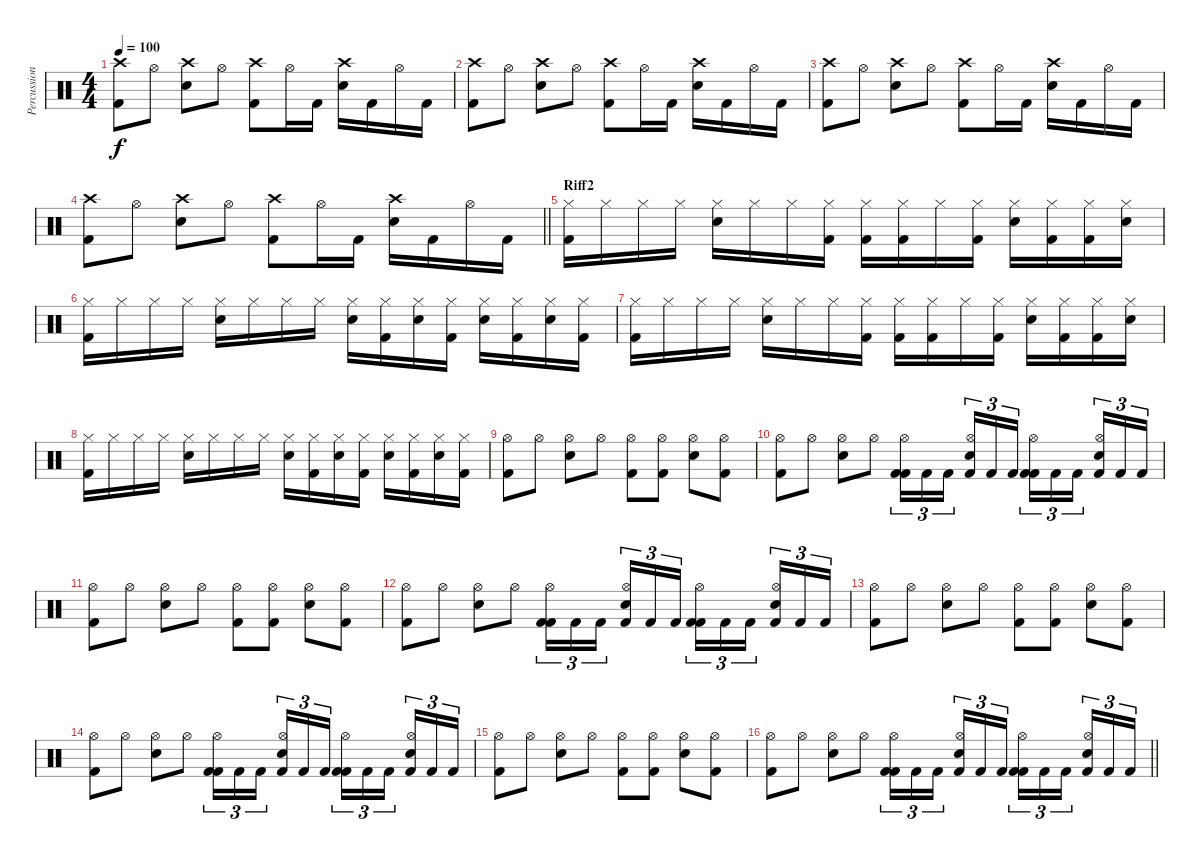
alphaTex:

\track ("Percussion" "Percussion") {instrument percussion}
\staff {score}
\articulation defaults
\ts (4 4)
\tempo 100
\clef neutral
\ks c
("Crash high (hit)" "Kick (hit) 2").8{dy f} "Hi-Hat (open)".8 ("Crash high (hit)" "Electric Snare (hit)").8 "Hi-Hat (open)".8 ("Crash high (hit)" "Kick (hit) 2").8 "Hi-Hat (open)".16 "Kick (hit) 2".16 ("Crash high (hit)" "Electric Snare (hit)").16 "Kick (hit) 2".16 "Hi-Hat (open)".16 "Kick (hit) 2".16 |
("Crash high (hit)" "Kick (hit) 2").8 "Hi-Hat (open)".8 ("Crash high (hit)" "Electric Snare (hit)").8 "Hi-Hat (open)".8 ("Crash high (hit)" "Kick (hit) 2").8 "Hi-Hat (open)".16 "Kick (hit) 2".16 ("Crash high (hit)" "Electric Snare (hit)").16 "Kick (hit) 2".16 "Hi-Hat (open)".16 "Kick (hit) 2".16 |
("Crash high (hit)" "Kick (hit) 2").8 "Hi-Hat (open)".8 ("Crash high (hit)" "Electric Snare (hit)").8 "Hi-Hat (open)".8 ("Crash high (hit)" "Kick (hit) 2").8 "Hi-Hat (open)".16 "Kick (hit) 2".16 ("Crash high (hit)" "Electric Snare (hit)").16 "Kick (hit) 2".16 "Hi-Hat (open)".16 "Kick (hit) 2".16 |
\barLineRight lightlight
("Crash high (hit)" "Kick (hit) 2").8 "Hi-Hat (open)".8 ("Crash high (hit)" "Electric Snare (hit)").8 "Hi-Hat (open)".8 ("Crash high (hit)" "Kick (hit) 2").8 "Hi-Hat (open)".16 "Kick (hit) 2".16 ("Crash high (hit)" "Electric Snare (hit)").16 "Kick (hit) 2".16 "Hi-Hat (open)".16 "Kick (hit) 2".16 |
\section ("" "Riff2")
("Hi-Hat (closed)" "Kick (hit) 2").16 "Hi-Hat (closed)".16 "Hi-Hat (closed)".16 "Hi-Hat (closed)".16 ("Hi-Hat (closed)" "Electric Snare (hit)").16 "Hi-Hat (closed)".16 "Hi-Hat (closed)".16 ("Hi-Hat (closed)" "Kick (hit) 2").16 ("Hi-Hat (closed)" "Kick (hit) 2").16 ("Hi-Hat (closed)" "Kick (hit) 2").16 "Hi-Hat (closed)".16 ("Hi-Hat (closed)" "Kick (hit) 2").16 ("Hi-Hat (closed)" "Electric Snare (hit)").16 ("Hi-Hat (closed)" "Kick (hit) 2").16 ("Hi-Hat (closed)" "Kick (hit) 2").16 ("Hi-Hat (closed)" "Electric Snare (hit)").16 |
("Hi-Hat (closed)" "Kick (hit) 2").16 "Hi-Hat (closed)".16 "Hi-Hat (closed)".16 "Hi-Hat (closed)".16 ("Hi-Hat (closed)" "Electric Snare (hit)").16 "Hi-Hat (closed)".16 "Hi-Hat (closed)".16 "Hi-Hat (closed)".16 ("Hi-Hat (closed)" "Electric Snare (hit)").16 ("Hi-Hat (closed)" "Kick (hit) 2").16 ("Hi-Hat (closed)" "Electric Snare (hit)").16 ("Hi-Hat (closed)" "Kick (hit) 2").16 ("Hi-Hat (closed)" "Electric Snare (hit)").16 ("Hi-Hat (closed)" "Kick (hit) 2").16 ("Hi-Hat (closed)" "Electric Snare (hit)").16 ("Hi-Hat (closed)" "Kick (hit) 2").16 |
("Hi-Hat (closed)" "Kick (hit) 2").16 "Hi-Hat (closed)".16 "Hi-Hat (closed)".16 "Hi-Hat (closed)".16 ("Hi-Hat (closed)" "Electric Snare (hit)").16 "Hi-Hat (closed)".16 "Hi-Hat (closed)".16 ("Hi-Hat (closed)" "Kick (hit) 2").16 ("Hi-Hat (closed)" "Kick (hit) 2").16 ("Hi-Hat (closed)" "Kick (hit) 2").16 "Hi-Hat (closed)".16 ("Hi-Hat (closed)" "Kick (hit) 2").16 ("Hi-Hat (closed)" "Electric Snare (hit)").16 ("Hi-Hat (closed)" "Kick (hit) 2").16 ("Hi-Hat (closed)" "Kick (hit) 2").16 ("Hi-Hat (closed)" "Electric Snare (hit)").16 |
("Hi-Hat (closed)" "Kick (hit) 2").16 "Hi-Hat (closed)".16 "Hi-Hat (closed)".16 "Hi-Hat (closed)".16 ("Hi-Hat (closed)" "Electric Snare (hit)").16 "Hi-Hat (closed)".16 "Hi-Hat (closed)".16 "Hi-Hat (closed)".16 ("Hi-Hat (closed)" "Electric Snare (hit)").16 ("Hi-Hat (closed)" "Kick (hit) 2").16 ("Hi-Hat (closed)" "Electric Snare (hit)").16 ("Hi-Hat (closed)" "Kick (hit) 2").16 ("Hi-Hat (closed)" "Electric Snare (hit)").16 ("Hi-Hat (closed)" "Kick (hit) 2").16 ("Hi-Hat (closed)" "Electric Snare (hit)").16 ("Hi-Hat (closed)" "Kick (hit) 2").16 |
("Hi-Hat (open)" "Kick (hit) 2").8 "Hi-Hat (open)".8 ("Hi-Hat (open)" "Electric Snare (hit)").8 "Hi-Hat (open)".8 ("Hi-Hat (open)" "Kick (hit) 2").8 ("Hi-Hat (open)" "Kick (hit) 2").8 ("Hi-Hat (open)" "Electric Snare (hit)").8 ("Hi-Hat (open)" "Kick (hit) 2").8 |
("Hi-Hat (open)" "Kick (hit) 2").8 "Hi-Hat (open)".8 ("Hi-Hat (open)" "Electric Snare (hit)").8 "Hi-Hat (open)".8 ("Kick (hit) 2" "Kick (hit) 2" "Hi-Hat (open)").16{tu (3 2)} "Kick (hit) 2".16{tu (3 2)} "Kick (hit) 2".16{tu (3 2) beam splitsecondary} ("Electric Snare (hit)" "Kick (hit) 2" "Hi-Hat (open)").16{tu (3 2)} "Kick (hit) 2".16{tu (3 2)} "Kick (hit) 2".16{tu (3 2)} ("Kick (hit) 2" "Kick (hit) 2" "Hi-Hat (open)").16{tu (3 2)} "Kick (hit) 2".16{tu (3 2)} "Kick (hit) 2".16{tu (3 2) beam splitsecondary} ("Electric Snare (hit)" "Kick (hit) 2" "Hi-Hat (open)").16{tu (3 2)} "Kick (hit) 2".16{tu (3 2)} "Kick (hit) 2".16{tu (3 2)} |
("Hi-Hat (open)" "Kick (hit) 2").8 "Hi-Hat (open)".8 ("Hi-Hat (open)" "Electric Snare (hit)").8 "Hi-Hat (open)".8 ("Hi-Hat (open)" "Kick (hit) 2").8 ("Hi-Hat (open)" "Kick (hit) 2").8 ("Hi-Hat (open)" "Electric Snare (hit)").8 ("Hi-Hat (open)" "Kick (hit) 2").8 |
("Hi-Hat (open)" "Kick (hit) 2").8 "Hi-Hat (open)".8 ("Hi-Hat (open)" "Electric Snare (hit)").8 "Hi-Hat (open)".8 ("Kick (hit) 2" "Kick (hit) 2" "Hi-Hat (open)").16{tu (3 2)} "Kick (hit) 2".16{tu (3 2)} "Kick (hit) 2".16{tu (3 2) beam splitsecondary} ("Electric Snare (hit)" "Kick (hit) 2" "Hi-Hat (open)").16{tu (3 2)} "Kick (hit) 2".16{tu (3 2)} "Kick (hit) 2".16{tu (3 2)} ("Kick (hit) 2" "Kick (hit) 2" "Hi-Hat (open)").16{tu (3 2)} "Kick (hit) 2".16{tu (3 2)} "Kick (hit) 2".16{tu (3 2) beam splitsecondary} ("Electric Snare (hit)" "Kick (hit) 2" "Hi-Hat (open)").16{tu (3 2)} "Kick (hit) 2".16{tu (3 2)} "Kick (hit) 2".16{tu (3 2)} |
("Hi-Hat (open)" "Kick (hit) 2").8 "Hi-Hat (open)".8 ("Hi-Hat (open)" "Electric Snare (hit)").8 "Hi-Hat (open)".8 ("Hi-Hat (open)" "Kick (hit) 2").8 ("Hi-Hat (open)" "Kick (hit) 2").8 ("Hi-Hat (open)" "Electric Snare (hit)").8 ("Hi-Hat (open)" "Kick (hit) 2").8 |
("Hi-Hat (open)" "Kick (hit) 2").8 "Hi-Hat (open)".8 ("Hi-Hat (open)" "Electric Snare (hit)").8 "Hi-Hat (open)".8 ("Kick (hit) 2" "Kick (hit) 2" "Hi-Hat (open)").16{tu (3 2)} "Kick (hit) 2".16{tu (3 2)} "Kick (hit) 2".16{tu (3 2) beam splitsecondary} ("Electric Snare (hit)" "Kick (hit) 2" "Hi-Hat (open)").16{tu (3 2)} "Kick (hit) 2".16{tu (3 2)} "Kick (hit) 2".16{tu (3 2)} ("Kick (hit) 2" "Kick (hit) 2" "Hi-Hat (open)").16{tu (3 2)} "Kick (hit) 2".16{tu (3 2)} "Kick (hit) 2".16{tu (3 2) beam splitsecondary} ("Electric Snare (hit)" "Kick (hit) 2" "Hi-Hat (open)").16{tu (3 2)} "Kick (hit) 2".16{tu (3 2)} "Kick (hit) 2".16{tu (3 2)} |
("Hi-Hat (open)" "Kick (hit) 2").8 "Hi-Hat (open)".8 ("Hi-Hat (open)" "Electric Snare (hit)").8 "Hi-Hat (open)".8 ("Hi-Hat (open)" "Kick (hit) 2").8 ("Hi-Hat (open)" "Kick (hit) 2").8 ("Hi-Hat (open)" "Electric Snare (hit)").8 ("Hi-Hat (open)" "Kick (hit) 2").8 |
\barLineRight lightlight
("Hi-Hat (open)" "Kick (hit) 2").8 "Hi-Hat (open)".8 ("Hi-Hat (open)" "Electric Snare (hit)").8 "Hi-Hat (open)".8 ("Kick (hit) 2" "Kick (hit) 2" "Hi-Hat (open)").16{tu (3 2)} "Kick (hit) 2".16{tu (3 2)} "Kick (hit) 2".16{tu (3 2) beam splitsecondary} ("Electric Snare (hit)" "Kick (hit) 2" "Hi-Hat (open)").16{tu (3 2)} "Kick (hit) 2".16{tu (3 2)} "Kick (hit) 2".16{tu (3 2)} ("Kick (hit) 2" "Kick (hit) 2" "Hi-Hat (open)").16{tu (3 2)} "Kick (hit) 2".16{tu (3 2)} "Kick (hit) 2".16{tu (3 2) beam splitsecondary} ("Electric Snare (hit)" "Kick (hit) 2" "Hi-Hat (open)").16{tu (3 2)} "Kick (hit) 2".16{tu (3 2)} "Kick (hit) 2".16{tu (3 2)}
